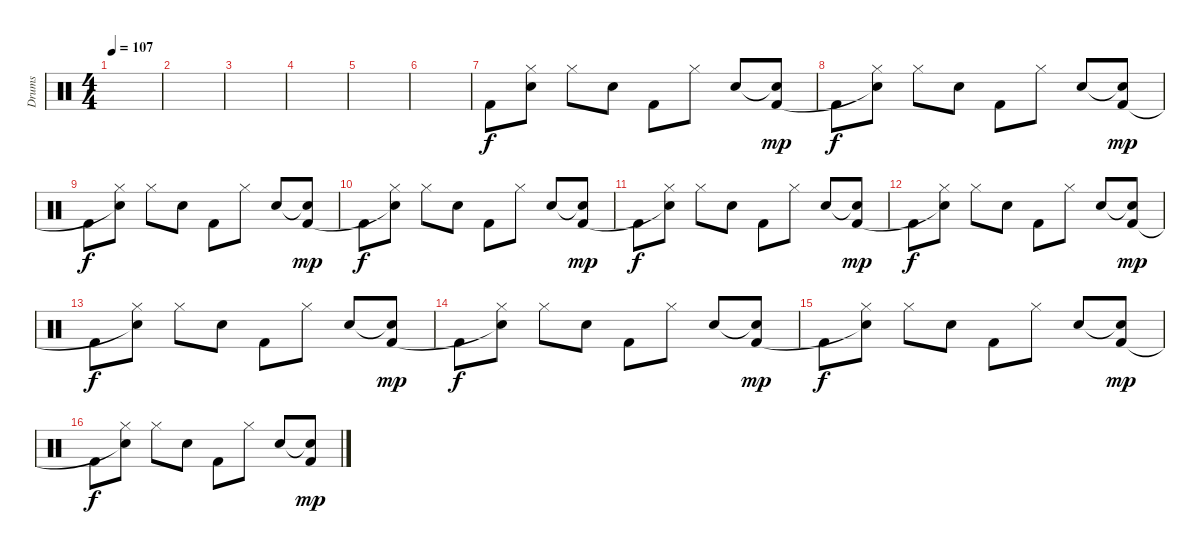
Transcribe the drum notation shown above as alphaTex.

\track ("Drums" "Drums") {instrument percussion}
\staff {score}
\articulation defaults
\ts (4 4)
\tempo 107
\clef neutral
\ks c
|
|
|
|
|
|
"Kick (hit) 2".8 ("Hi-Hat (closed)" "Snare (hit)").8 "Hi-Hat (closed)".8 "Electric Snare (hit)".8 "Kick (hit) 2".8 "Hi-Hat (closed)".8 "Electric Snare (hit)".8 ("Snare (hit)"{t} "Kick (hit) 2").8{dy mp} |
"Kick (hit) 2".8{dy f} ("Hi-Hat (closed)" "Snare (hit)"{t}).8 "Hi-Hat (closed)".8 "Electric Snare (hit)".8 "Kick (hit) 2".8 "Hi-Hat (closed)".8 "Electric Snare (hit)".8 ("Snare (hit)"{t} "Kick (hit) 2").8{dy mp} |
"Kick (hit) 2".8{dy f} ("Hi-Hat (closed)" "Snare (hit)"{t}).8 "Hi-Hat (closed)".8 "Electric Snare (hit)".8 "Kick (hit) 2".8 "Hi-Hat (closed)".8 "Electric Snare (hit)".8 ("Snare (hit)"{t} "Kick (hit) 2").8{dy mp} |
"Kick (hit) 2".8{dy f} ("Hi-Hat (closed)" "Snare (hit)"{t}).8 "Hi-Hat (closed)".8 "Electric Snare (hit)".8 "Kick (hit) 2".8 "Hi-Hat (closed)".8 "Electric Snare (hit)".8 ("Snare (hit)"{t} "Kick (hit) 2").8{dy mp} |
"Kick (hit) 2".8{dy f} ("Hi-Hat (closed)" "Snare (hit)"{t}).8 "Hi-Hat (closed)".8 "Electric Snare (hit)".8 "Kick (hit) 2".8 "Hi-Hat (closed)".8 "Electric Snare (hit)".8 ("Snare (hit)"{t} "Kick (hit) 2").8{dy mp} |
"Kick (hit) 2".8{dy f} ("Hi-Hat (closed)" "Snare (hit)"{t}).8 "Hi-Hat (closed)".8 "Electric Snare (hit)".8 "Kick (hit) 2".8 "Hi-Hat (closed)".8 "Electric Snare (hit)".8 ("Snare (hit)"{t} "Kick (hit) 2").8{dy mp} |
"Kick (hit) 2".8{dy f} ("Hi-Hat (closed)" "Snare (hit)"{t}).8 "Hi-Hat (closed)".8 "Electric Snare (hit)".8 "Kick (hit) 2".8 "Hi-Hat (closed)".8 "Electric Snare (hit)".8 ("Snare (hit)"{t} "Kick (hit) 2").8{dy mp} |
"Kick (hit) 2".8{dy f} ("Hi-Hat (closed)" "Snare (hit)"{t}).8 "Hi-Hat (closed)".8 "Electric Snare (hit)".8 "Kick (hit) 2".8 "Hi-Hat (closed)".8 "Electric Snare (hit)".8 ("Snare (hit)"{t} "Kick (hit) 2").8{dy mp} |
"Kick (hit) 2".8{dy f} ("Hi-Hat (closed)" "Snare (hit)"{t}).8 "Hi-Hat (closed)".8 "Electric Snare (hit)".8 "Kick (hit) 2".8 "Hi-Hat (closed)".8 "Electric Snare (hit)".8 ("Snare (hit)"{t} "Kick (hit) 2").8{dy mp} |
"Kick (hit) 2".8{dy f} ("Hi-Hat (closed)" "Snare (hit)"{t}).8 "Hi-Hat (closed)".8 "Electric Snare (hit)".8 "Kick (hit) 2".8 "Hi-Hat (closed)".8 "Electric Snare (hit)".8 ("Snare (hit)"{t} "Kick (hit) 2").8{dy mp}
